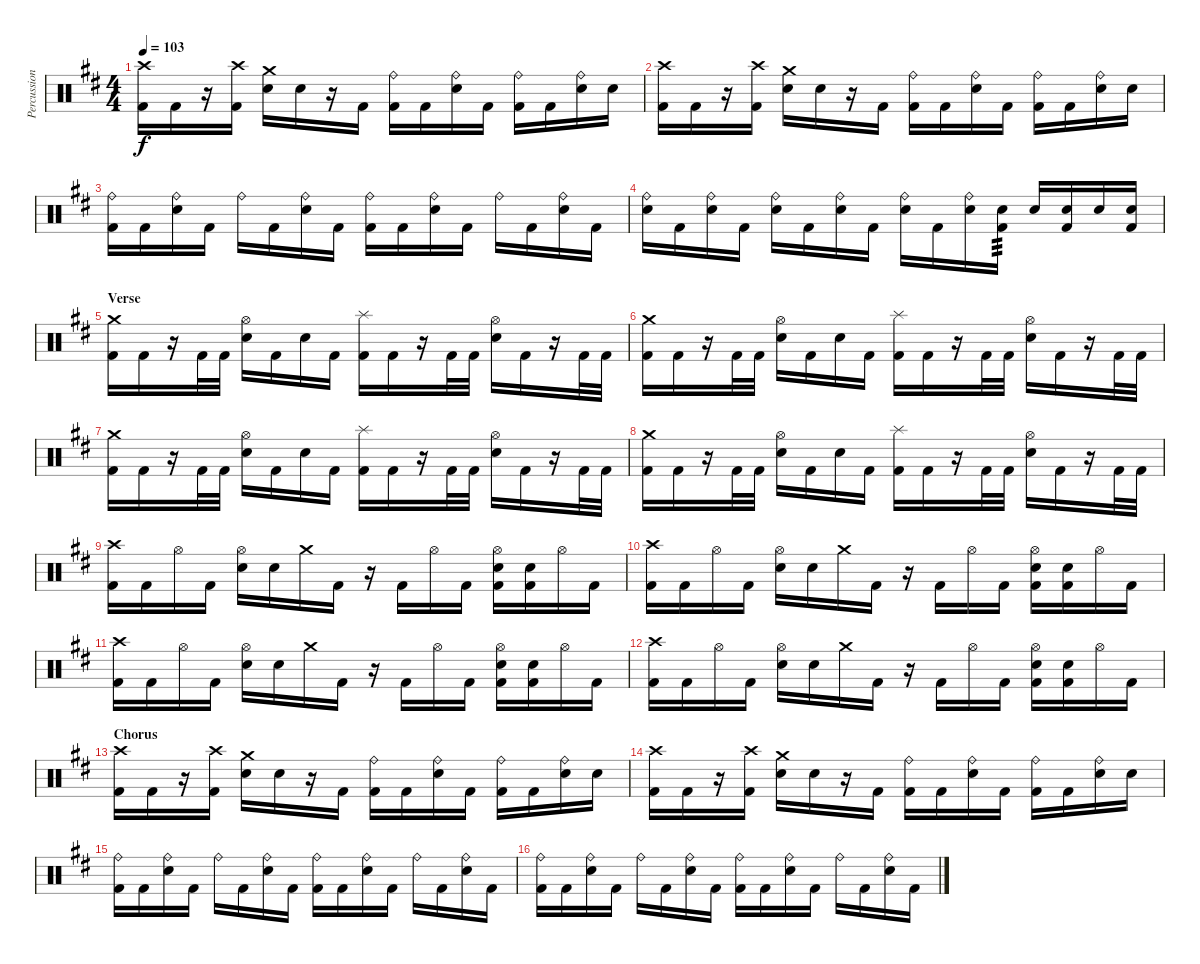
\track ("Percussion" "Percussion") {instrument percussion}
\staff {score}
\articulation defaults
\ts (4 4)
\tempo 103
\clef neutral
\ks d
("Crash high (hit)" "Kick (hit) 2").16{dy f} "Kick (hit) 2".16 r.16 ("Crash high (hit)" "Kick (hit) 2").16 ("Crash medium (hit)" "Snare (hit) 2").16 "Snare (hit) 2".16 r.16 "Kick (hit) 2".16 ("Ride (bell)" "Kick (hit) 2").16 "Kick (hit) 2".16 ("Ride (bell)" "Snare (hit) 2").16 "Kick (hit) 2".16 ("Ride (bell)" "Kick (hit) 2").16 "Kick (hit) 2".16 ("Ride (bell)" "Snare (hit) 2").16 "Snare (hit) 2".16 |
("Crash high (hit)" "Kick (hit) 2").16 "Kick (hit) 2".16 r.16 ("Crash high (hit)" "Kick (hit) 2").16 ("Crash medium (hit)" "Snare (hit) 2").16 "Snare (hit) 2".16 r.16 "Kick (hit) 2".16 ("Ride (bell)" "Kick (hit) 2").16 "Kick (hit) 2".16 ("Ride (bell)" "Snare (hit) 2").16 "Kick (hit) 2".16 ("Ride (bell)" "Kick (hit) 2").16 "Kick (hit) 2".16 ("Ride (bell)" "Snare (hit) 2").16 "Snare (hit) 2".16 |
("Ride (bell)" "Kick (hit) 2").16 "Kick (hit) 2".16 ("Ride (bell)" "Snare (hit) 2").16 "Kick (hit) 2".16 "Ride (bell)".16 "Kick (hit) 2".16 ("Ride (bell)" "Snare (hit) 2").16 "Kick (hit) 2".16 ("Ride (bell)" "Kick (hit) 2").16 "Kick (hit) 2".16 ("Ride (bell)" "Snare (hit) 2").16 "Kick (hit) 2".16 "Ride (bell)".16 "Kick (hit) 2".16 ("Ride (bell)" "Snare (hit) 2").16 "Kick (hit) 2".16 |
("Ride (bell)" "Snare (hit) 2").16 "Kick (hit) 2".16 ("Ride (bell)" "Snare (hit) 2").16 "Kick (hit) 2".16 ("Ride (bell)" "Snare (hit) 2").16 "Kick (hit) 2".16 ("Ride (bell)" "Snare (hit) 2").16 "Kick (hit) 2".16 ("Ride (bell)" "Snare (hit) 2").16 "Kick (hit) 2".16 ("Ride (bell)" "Snare (hit) 2").16 ("Snare (hit) 2" "Kick (hit) 2").16{tp 3} "Snare (hit) 2".16 ("Snare (hit) 2" "Kick (hit) 2").16 "Snare (hit) 2".16 ("Snare (hit) 2" "Kick (hit) 2").16 |
\section ("" "Verse")
("Crash medium (hit)" "Kick (hit) 2").16 "Kick (hit) 2".16 r.16 "Kick (hit) 2".32 "Kick (hit) 2".32 ("Hi-Hat (open)" "Snare (hit) 2").16 "Kick (hit) 2".16 "Snare (hit) 2".16 "Kick (hit) 2".16 ("Splash (hit)" "Kick (hit) 2").16 "Kick (hit) 2".16 r.16 "Kick (hit) 2".32 "Kick (hit) 2".32 ("Hi-Hat (open)" "Snare (hit) 2").16 "Kick (hit) 2".16 r.16 "Kick (hit) 2".32 "Kick (hit) 2".32 |
("Crash medium (hit)" "Kick (hit) 2").16 "Kick (hit) 2".16 r.16 "Kick (hit) 2".32 "Kick (hit) 2".32 ("Hi-Hat (open)" "Snare (hit) 2").16 "Kick (hit) 2".16 "Snare (hit) 2".16 "Kick (hit) 2".16 ("Splash (hit)" "Kick (hit) 2").16 "Kick (hit) 2".16 r.16 "Kick (hit) 2".32 "Kick (hit) 2".32 ("Hi-Hat (open)" "Snare (hit) 2").16 "Kick (hit) 2".16 r.16 "Kick (hit) 2".32 "Kick (hit) 2".32 |
("Crash medium (hit)" "Kick (hit) 2").16 "Kick (hit) 2".16 r.16 "Kick (hit) 2".32 "Kick (hit) 2".32 ("Hi-Hat (open)" "Snare (hit) 2").16 "Kick (hit) 2".16 "Snare (hit) 2".16 "Kick (hit) 2".16 ("Splash (hit)" "Kick (hit) 2").16 "Kick (hit) 2".16 r.16 "Kick (hit) 2".32 "Kick (hit) 2".32 ("Hi-Hat (open)" "Snare (hit) 2").16 "Kick (hit) 2".16 r.16 "Kick (hit) 2".32 "Kick (hit) 2".32 |
("Crash medium (hit)" "Kick (hit) 2").16 "Kick (hit) 2".16 r.16 "Kick (hit) 2".32 "Kick (hit) 2".32 ("Hi-Hat (open)" "Snare (hit) 2").16 "Kick (hit) 2".16 "Snare (hit) 2".16 "Kick (hit) 2".16 ("Splash (hit)" "Kick (hit) 2").16 "Kick (hit) 2".16 r.16 "Kick (hit) 2".32 "Kick (hit) 2".32 ("Hi-Hat (open)" "Snare (hit) 2").16 "Kick (hit) 2".16 r.16 "Kick (hit) 2".32 "Kick (hit) 2".32 |
("Crash high (hit)" "Kick (hit) 2").16 "Kick (hit) 2".16 "Hi-Hat (open)".16 "Kick (hit) 2".16 ("Hi-Hat (open)" "Snare (hit) 2").16 "Snare (hit) 2".16 "Crash medium (hit)".16 "Kick (hit) 2".16 r.16 "Kick (hit) 2".16 "Hi-Hat (open)".16 "Kick (hit) 2".16 ("Hi-Hat (open)" "Snare (hit) 2" "Kick (hit) 2").16 ("Snare (hit) 2" "Kick (hit) 2").16 "Hi-Hat (open)".16 "Kick (hit) 2".16 |
("Crash high (hit)" "Kick (hit) 2").16 "Kick (hit) 2".16 "Hi-Hat (open)".16 "Kick (hit) 2".16 ("Hi-Hat (open)" "Snare (hit) 2").16 "Snare (hit) 2".16 "Crash medium (hit)".16 "Kick (hit) 2".16 r.16 "Kick (hit) 2".16 "Hi-Hat (open)".16 "Kick (hit) 2".16 ("Hi-Hat (open)" "Snare (hit) 2" "Kick (hit) 2").16 ("Snare (hit) 2" "Kick (hit) 2").16 "Hi-Hat (open)".16 "Kick (hit) 2".16 |
("Crash high (hit)" "Kick (hit) 2").16 "Kick (hit) 2".16 "Hi-Hat (open)".16 "Kick (hit) 2".16 ("Hi-Hat (open)" "Snare (hit) 2").16 "Snare (hit) 2".16 "Crash medium (hit)".16 "Kick (hit) 2".16 r.16 "Kick (hit) 2".16 "Hi-Hat (open)".16 "Kick (hit) 2".16 ("Hi-Hat (open)" "Snare (hit) 2" "Kick (hit) 2").16 ("Snare (hit) 2" "Kick (hit) 2").16 "Hi-Hat (open)".16 "Kick (hit) 2".16 |
("Crash high (hit)" "Kick (hit) 2").16 "Kick (hit) 2".16 "Hi-Hat (open)".16 "Kick (hit) 2".16 ("Hi-Hat (open)" "Snare (hit) 2").16 "Snare (hit) 2".16 "Crash medium (hit)".16 "Kick (hit) 2".16 r.16 "Kick (hit) 2".16 "Hi-Hat (open)".16 "Kick (hit) 2".16 ("Hi-Hat (open)" "Snare (hit) 2" "Kick (hit) 2").16 ("Snare (hit) 2" "Kick (hit) 2").16 "Hi-Hat (open)".16 "Kick (hit) 2".16 |
\section ("" "Chorus")
("Crash high (hit)" "Kick (hit) 2").16 "Kick (hit) 2".16 r.16 ("Crash high (hit)" "Kick (hit) 2").16 ("Crash medium (hit)" "Snare (hit) 2").16 "Snare (hit) 2".16 r.16 "Kick (hit) 2".16 ("Ride (bell)" "Kick (hit) 2").16 "Kick (hit) 2".16 ("Ride (bell)" "Snare (hit) 2").16 "Kick (hit) 2".16 ("Ride (bell)" "Kick (hit) 2").16 "Kick (hit) 2".16 ("Ride (bell)" "Snare (hit) 2").16 "Snare (hit) 2".16 |
("Crash high (hit)" "Kick (hit) 2").16 "Kick (hit) 2".16 r.16 ("Crash high (hit)" "Kick (hit) 2").16 ("Crash medium (hit)" "Snare (hit) 2").16 "Snare (hit) 2".16 r.16 "Kick (hit) 2".16 ("Ride (bell)" "Kick (hit) 2").16 "Kick (hit) 2".16 ("Ride (bell)" "Snare (hit) 2").16 "Kick (hit) 2".16 ("Ride (bell)" "Kick (hit) 2").16 "Kick (hit) 2".16 ("Ride (bell)" "Snare (hit) 2").16 "Snare (hit) 2".16 |
("Ride (bell)" "Kick (hit) 2").16 "Kick (hit) 2".16 ("Ride (bell)" "Snare (hit) 2").16 "Kick (hit) 2".16 "Ride (bell)".16 "Kick (hit) 2".16 ("Ride (bell)" "Snare (hit) 2").16 "Kick (hit) 2".16 ("Ride (bell)" "Kick (hit) 2").16 "Kick (hit) 2".16 ("Ride (bell)" "Snare (hit) 2").16 "Kick (hit) 2".16 "Ride (bell)".16 "Kick (hit) 2".16 ("Ride (bell)" "Snare (hit) 2").16 "Kick (hit) 2".16 |
("Ride (bell)" "Kick (hit) 2").16 "Kick (hit) 2".16 ("Ride (bell)" "Snare (hit) 2").16 "Kick (hit) 2".16 "Ride (bell)".16 "Kick (hit) 2".16 ("Ride (bell)" "Snare (hit) 2").16 "Kick (hit) 2".16 ("Ride (bell)" "Kick (hit) 2").16 "Kick (hit) 2".16 ("Ride (bell)" "Snare (hit) 2").16 "Kick (hit) 2".16 "Ride (bell)".16 "Kick (hit) 2".16 ("Ride (bell)" "Snare (hit) 2").16 "Kick (hit) 2".16
